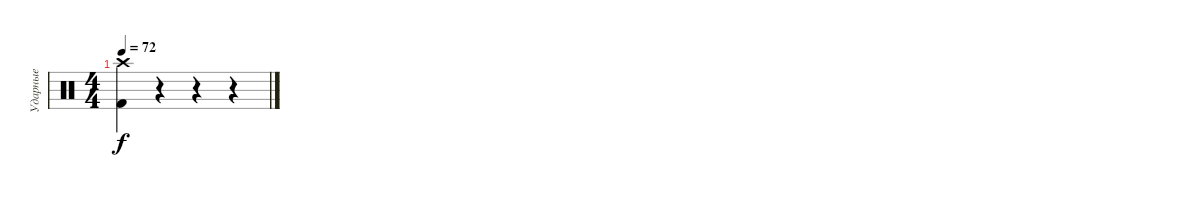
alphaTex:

\track ("Ударные" "Ударные") {instrument percussion}
\staff {score}
\articulation defaults
\ts (4 4)
\tempo 72
\clef neutral
\ks c
("Crash high (hit)" "Kick (hit) 2").4{dy f} r.4 r.4 r.4
